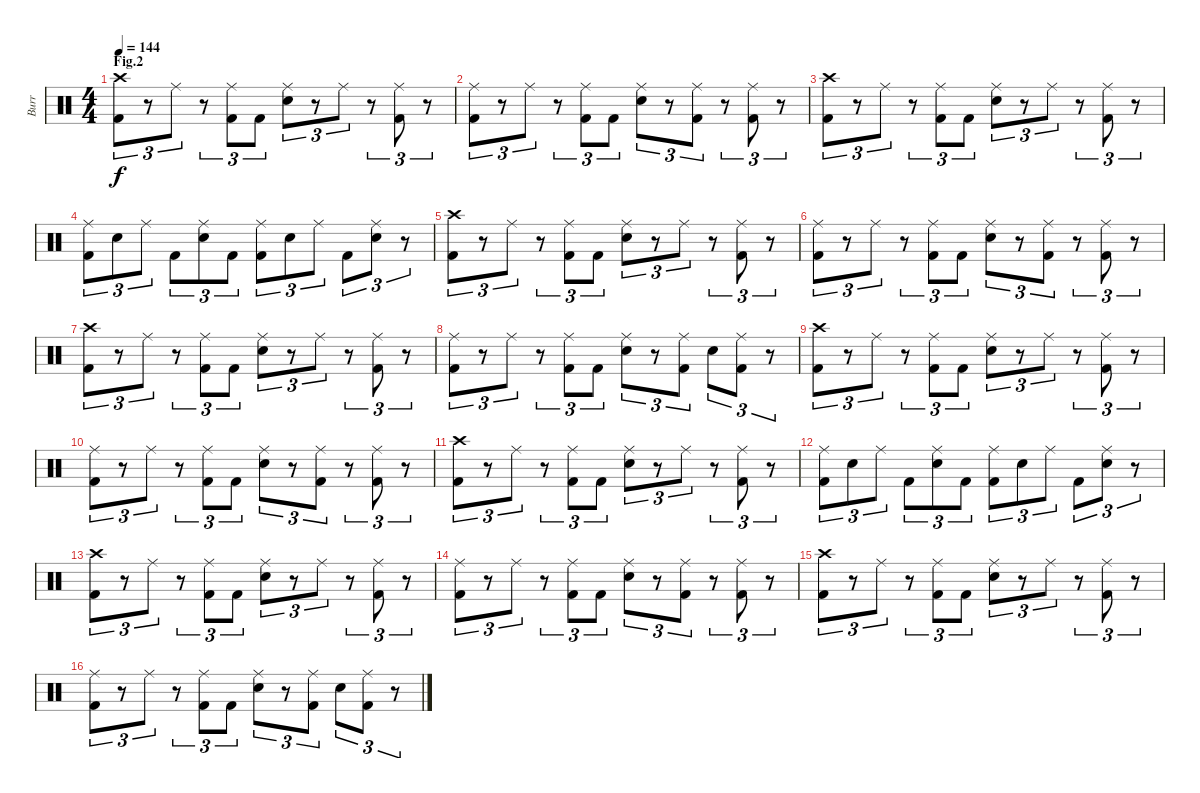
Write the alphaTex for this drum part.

\track ("Burr" "Burr") {instrument percussion}
\staff {score}
\articulation defaults
\ts (4 4)
\section ("" "Fig.2")
\tempo 144
\clef neutral
\ks c
("Crash high (hit)" "Kick (hit) 2").8{tu (3 2) dy f} r.8{tu (3 2)} "Ride (middle)".8{tu (3 2)} r.8{tu (3 2)} ("Ride (middle)" "Kick (hit) 2").8{tu (3 2)} "Kick (hit) 2".8{tu (3 2)} ("Ride (middle)" "Snare (hit) 2").8{tu (3 2)} r.8{tu (3 2)} "Ride (middle)".8{tu (3 2)} r.8{tu (3 2)} ("Ride (middle)" "Kick (hit) 2").8{tu (3 2)} r.8{tu (3 2)} |
("Ride (middle)" "Kick (hit) 2").8{tu (3 2)} r.8{tu (3 2)} "Ride (middle)".8{tu (3 2)} r.8{tu (3 2)} ("Ride (middle)" "Kick (hit) 2").8{tu (3 2)} "Kick (hit) 2".8{tu (3 2)} ("Ride (middle)" "Snare (hit) 2").8{tu (3 2)} r.8{tu (3 2)} ("Ride (middle)" "Kick (hit) 2").8{tu (3 2)} r.8{tu (3 2)} ("Ride (middle)" "Kick (hit) 2").8{tu (3 2)} r.8{tu (3 2)} |
("Crash high (hit)" "Kick (hit) 2").8{tu (3 2)} r.8{tu (3 2)} "Ride (middle)".8{tu (3 2)} r.8{tu (3 2)} ("Ride (middle)" "Kick (hit) 2").8{tu (3 2)} "Kick (hit) 2".8{tu (3 2)} ("Ride (middle)" "Snare (hit) 2").8{tu (3 2)} r.8{tu (3 2)} "Ride (middle)".8{tu (3 2)} r.8{tu (3 2)} ("Ride (middle)" "Kick (hit) 2").8{tu (3 2)} r.8{tu (3 2)} |
("Ride (middle)" "Kick (hit) 2").8{tu (3 2)} "Snare (hit) 2".8{tu (3 2)} "Ride (middle)".8{tu (3 2)} "Kick (hit) 2".8{tu (3 2)} ("Ride (middle)" "Snare (hit) 2").8{tu (3 2)} "Kick (hit) 2".8{tu (3 2)} ("Ride (middle)" "Kick (hit) 2").8{tu (3 2)} "Snare (hit) 2".8{tu (3 2)} "Ride (middle)".8{tu (3 2)} "Kick (hit) 2".8{tu (3 2)} ("Ride (middle)" "Snare (hit) 2").8{tu (3 2)} r.8{tu (3 2)} |
("Crash high (hit)" "Kick (hit) 2").8{tu (3 2)} r.8{tu (3 2)} "Ride (middle)".8{tu (3 2)} r.8{tu (3 2)} ("Ride (middle)" "Kick (hit) 2").8{tu (3 2)} "Kick (hit) 2".8{tu (3 2)} ("Ride (middle)" "Snare (hit) 2").8{tu (3 2)} r.8{tu (3 2)} "Ride (middle)".8{tu (3 2)} r.8{tu (3 2)} ("Ride (middle)" "Kick (hit) 2").8{tu (3 2)} r.8{tu (3 2)} |
("Ride (middle)" "Kick (hit) 2").8{tu (3 2)} r.8{tu (3 2)} "Ride (middle)".8{tu (3 2)} r.8{tu (3 2)} ("Ride (middle)" "Kick (hit) 2").8{tu (3 2)} "Kick (hit) 2".8{tu (3 2)} ("Ride (middle)" "Snare (hit) 2").8{tu (3 2)} r.8{tu (3 2)} ("Ride (middle)" "Kick (hit) 2").8{tu (3 2)} r.8{tu (3 2)} ("Ride (middle)" "Kick (hit) 2").8{tu (3 2)} r.8{tu (3 2)} |
("Crash high (hit)" "Kick (hit) 2").8{tu (3 2)} r.8{tu (3 2)} "Ride (middle)".8{tu (3 2)} r.8{tu (3 2)} ("Ride (middle)" "Kick (hit) 2").8{tu (3 2)} "Kick (hit) 2".8{tu (3 2)} ("Ride (middle)" "Snare (hit) 2").8{tu (3 2)} r.8{tu (3 2)} "Ride (middle)".8{tu (3 2)} r.8{tu (3 2)} ("Ride (middle)" "Kick (hit) 2").8{tu (3 2)} r.8{tu (3 2)} |
("Ride (middle)" "Kick (hit) 2").8{tu (3 2)} r.8{tu (3 2)} "Ride (middle)".8{tu (3 2)} r.8{tu (3 2)} ("Ride (middle)" "Kick (hit) 2").8{tu (3 2)} "Kick (hit) 2".8{tu (3 2)} ("Ride (middle)" "Snare (hit) 2").8{tu (3 2)} r.8{tu (3 2)} ("Ride (middle)" "Kick (hit) 2").8{tu (3 2)} "Snare (hit) 2".8{tu (3 2)} ("Ride (middle)" "Kick (hit) 2").8{tu (3 2)} r.8{tu (3 2)} |
("Crash high (hit)" "Kick (hit) 2").8{tu (3 2)} r.8{tu (3 2)} "Ride (middle)".8{tu (3 2)} r.8{tu (3 2)} ("Ride (middle)" "Kick (hit) 2").8{tu (3 2)} "Kick (hit) 2".8{tu (3 2)} ("Ride (middle)" "Snare (hit) 2").8{tu (3 2)} r.8{tu (3 2)} "Ride (middle)".8{tu (3 2)} r.8{tu (3 2)} ("Ride (middle)" "Kick (hit) 2").8{tu (3 2)} r.8{tu (3 2)} |
("Ride (middle)" "Kick (hit) 2").8{tu (3 2)} r.8{tu (3 2)} "Ride (middle)".8{tu (3 2)} r.8{tu (3 2)} ("Ride (middle)" "Kick (hit) 2").8{tu (3 2)} "Kick (hit) 2".8{tu (3 2)} ("Ride (middle)" "Snare (hit) 2").8{tu (3 2)} r.8{tu (3 2)} ("Ride (middle)" "Kick (hit) 2").8{tu (3 2)} r.8{tu (3 2)} ("Ride (middle)" "Kick (hit) 2").8{tu (3 2)} r.8{tu (3 2)} |
("Crash high (hit)" "Kick (hit) 2").8{tu (3 2)} r.8{tu (3 2)} "Ride (middle)".8{tu (3 2)} r.8{tu (3 2)} ("Ride (middle)" "Kick (hit) 2").8{tu (3 2)} "Kick (hit) 2".8{tu (3 2)} ("Ride (middle)" "Snare (hit) 2").8{tu (3 2)} r.8{tu (3 2)} "Ride (middle)".8{tu (3 2)} r.8{tu (3 2)} ("Ride (middle)" "Kick (hit) 2").8{tu (3 2)} r.8{tu (3 2)} |
("Ride (middle)" "Kick (hit) 2").8{tu (3 2)} "Snare (hit) 2".8{tu (3 2)} "Ride (middle)".8{tu (3 2)} "Kick (hit) 2".8{tu (3 2)} ("Ride (middle)" "Snare (hit) 2").8{tu (3 2)} "Kick (hit) 2".8{tu (3 2)} ("Ride (middle)" "Kick (hit) 2").8{tu (3 2)} "Snare (hit) 2".8{tu (3 2)} "Ride (middle)".8{tu (3 2)} "Kick (hit) 2".8{tu (3 2)} ("Ride (middle)" "Snare (hit) 2").8{tu (3 2)} r.8{tu (3 2)} |
("Crash high (hit)" "Kick (hit) 2").8{tu (3 2)} r.8{tu (3 2)} "Ride (middle)".8{tu (3 2)} r.8{tu (3 2)} ("Ride (middle)" "Kick (hit) 2").8{tu (3 2)} "Kick (hit) 2".8{tu (3 2)} ("Ride (middle)" "Snare (hit) 2").8{tu (3 2)} r.8{tu (3 2)} "Ride (middle)".8{tu (3 2)} r.8{tu (3 2)} ("Ride (middle)" "Kick (hit) 2").8{tu (3 2)} r.8{tu (3 2)} |
("Ride (middle)" "Kick (hit) 2").8{tu (3 2)} r.8{tu (3 2)} "Ride (middle)".8{tu (3 2)} r.8{tu (3 2)} ("Ride (middle)" "Kick (hit) 2").8{tu (3 2)} "Kick (hit) 2".8{tu (3 2)} ("Ride (middle)" "Snare (hit) 2").8{tu (3 2)} r.8{tu (3 2)} ("Ride (middle)" "Kick (hit) 2").8{tu (3 2)} r.8{tu (3 2)} ("Ride (middle)" "Kick (hit) 2").8{tu (3 2)} r.8{tu (3 2)} |
("Crash high (hit)" "Kick (hit) 2").8{tu (3 2)} r.8{tu (3 2)} "Ride (middle)".8{tu (3 2)} r.8{tu (3 2)} ("Ride (middle)" "Kick (hit) 2").8{tu (3 2)} "Kick (hit) 2".8{tu (3 2)} ("Ride (middle)" "Snare (hit) 2").8{tu (3 2)} r.8{tu (3 2)} "Ride (middle)".8{tu (3 2)} r.8{tu (3 2)} ("Ride (middle)" "Kick (hit) 2").8{tu (3 2)} r.8{tu (3 2)} |
("Ride (middle)" "Kick (hit) 2").8{tu (3 2)} r.8{tu (3 2)} "Ride (middle)".8{tu (3 2)} r.8{tu (3 2)} ("Ride (middle)" "Kick (hit) 2").8{tu (3 2)} "Kick (hit) 2".8{tu (3 2)} ("Ride (middle)" "Snare (hit) 2").8{tu (3 2)} r.8{tu (3 2)} ("Ride (middle)" "Kick (hit) 2").8{tu (3 2)} "Snare (hit) 2".8{tu (3 2)} ("Ride (middle)" "Kick (hit) 2").8{tu (3 2)} r.8{tu (3 2)}
